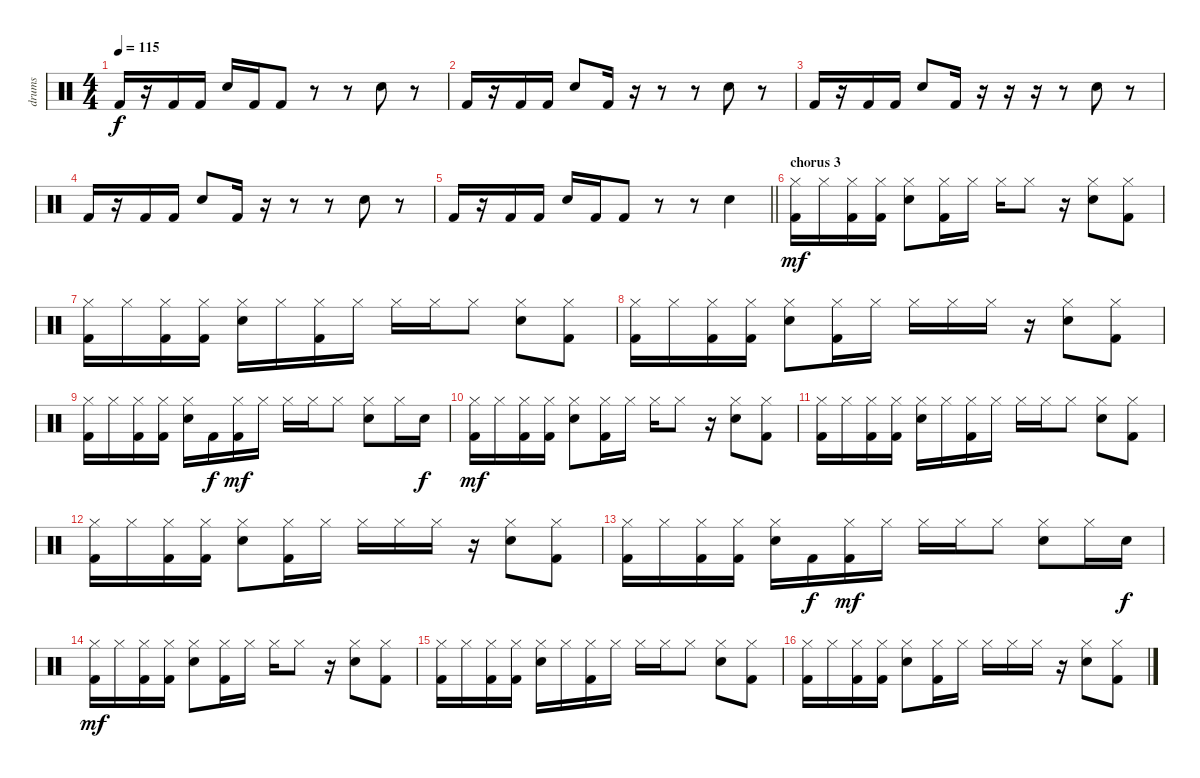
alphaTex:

\track ("drums" "drums") {instrument percussion}
\staff {score}
\articulation defaults
\ts (4 4)
\tempo 115
\clef neutral
\ks c "Kick (hit) 2".16{dy f}
r.16 "Kick (hit) 2".16 "Kick (hit) 2".16 "Snare (hit) 2".16 "Kick (hit) 2".16 "Kick (hit) 2".8 r.8 r.8 "Snare (hit) 2".8 r.8 |
"Kick (hit) 2".16 r.16 "Kick (hit) 2".16 "Kick (hit) 2".16 "Snare (hit) 2".8 "Kick (hit) 2".16 r.16 r.8 r.8 "Snare (hit) 2".8 r.8 |
"Kick (hit) 2".16 r.16 "Kick (hit) 2".16 "Kick (hit) 2".16 "Snare (hit) 2".8 "Kick (hit) 2".16 r.16 r.16 r.16 r.8 "Snare (hit) 2".8 r.8 |
"Kick (hit) 2".16 r.16 "Kick (hit) 2".16 "Kick (hit) 2".16 "Snare (hit) 2".8 "Kick (hit) 2".16 r.16 r.8 r.8 "Snare (hit) 2".8 r.8 |
\barLineRight lightlight "Kick (hit) 2".16
r.16 "Kick (hit) 2".16 "Kick (hit) 2".16 "Snare (hit) 2".16 "Kick (hit) 2".16 "Kick (hit) 2".8 r.8 r.8 "Snare (hit) 2".4 |
\section ("" "chorus 3")
("Hi-Hat (closed)" "Kick (hit) 2").16{dy mf} "Hi-Hat (closed)".16 ("Hi-Hat (closed)" "Kick (hit) 2").16 ("Hi-Hat (closed)" "Kick (hit) 2").16 ("Hi-Hat (closed)" "Snare (hit) 2").8 ("Hi-Hat (closed)" "Kick (hit) 2").16 "Hi-Hat (closed)".16 "Hi-Hat (closed)".16 "Hi-Hat (closed)".8 r.16 ("Hi-Hat (closed)" "Snare (hit) 2").8 ("Hi-Hat (closed)" "Kick (hit) 2").8 |
("Hi-Hat (closed)" "Kick (hit) 2").16 "Hi-Hat (closed)".16 ("Hi-Hat (closed)" "Kick (hit) 2").16 ("Hi-Hat (closed)" "Kick (hit) 2").16 ("Hi-Hat (closed)" "Snare (hit) 2").16 "Hi-Hat (closed)".16 ("Hi-Hat (closed)" "Kick (hit) 2").16 "Hi-Hat (closed)".16 "Hi-Hat (closed)".16 "Hi-Hat (closed)".16 "Hi-Hat (closed)".8 ("Hi-Hat (closed)" "Snare (hit) 2").8 ("Hi-Hat (closed)" "Kick (hit) 2").8 |
("Hi-Hat (closed)" "Kick (hit) 2").16 "Hi-Hat (closed)".16 ("Hi-Hat (closed)" "Kick (hit) 2").16 ("Hi-Hat (closed)" "Kick (hit) 2").16 ("Hi-Hat (closed)" "Snare (hit) 2").8 ("Hi-Hat (closed)" "Kick (hit) 2").16 "Hi-Hat (closed)".16 "Hi-Hat (closed)".16 "Hi-Hat (closed)".16 "Hi-Hat (closed)".16 r.16 ("Hi-Hat (closed)" "Snare (hit) 2").8 ("Hi-Hat (closed)" "Kick (hit) 2").8 |
("Hi-Hat (closed)" "Kick (hit) 2").16 "Hi-Hat (closed)".16 ("Hi-Hat (closed)" "Kick (hit) 2").16 ("Hi-Hat (closed)" "Kick (hit) 2").16 ("Hi-Hat (closed)" "Snare (hit) 2").16 "Kick (hit) 2".16{dy f} ("Hi-Hat (closed)" "Kick (hit) 2").16{dy mf} "Hi-Hat (closed)".16 "Hi-Hat (closed)".16 "Hi-Hat (closed)".16 "Hi-Hat (closed)".8 ("Hi-Hat (closed)" "Snare (hit) 2").8 "Hi-Hat (closed)".16 "Snare (hit) 2".16{dy f} |
("Hi-Hat (closed)" "Kick (hit) 2").16{dy mf} "Hi-Hat (closed)".16 ("Hi-Hat (closed)" "Kick (hit) 2").16 ("Hi-Hat (closed)" "Kick (hit) 2").16 ("Hi-Hat (closed)" "Snare (hit) 2").8 ("Hi-Hat (closed)" "Kick (hit) 2").16 "Hi-Hat (closed)".16 "Hi-Hat (closed)".16 "Hi-Hat (closed)".8 r.16 ("Hi-Hat (closed)" "Snare (hit) 2").8 ("Hi-Hat (closed)" "Kick (hit) 2").8 |
("Hi-Hat (closed)" "Kick (hit) 2").16 "Hi-Hat (closed)".16 ("Hi-Hat (closed)" "Kick (hit) 2").16 ("Hi-Hat (closed)" "Kick (hit) 2").16 ("Hi-Hat (closed)" "Snare (hit) 2").16 "Hi-Hat (closed)".16 ("Hi-Hat (closed)" "Kick (hit) 2").16 "Hi-Hat (closed)".16 "Hi-Hat (closed)".16 "Hi-Hat (closed)".16 "Hi-Hat (closed)".8 ("Hi-Hat (closed)" "Snare (hit) 2").8 ("Hi-Hat (closed)" "Kick (hit) 2").8 |
("Hi-Hat (closed)" "Kick (hit) 2").16 "Hi-Hat (closed)".16 ("Hi-Hat (closed)" "Kick (hit) 2").16 ("Hi-Hat (closed)" "Kick (hit) 2").16 ("Hi-Hat (closed)" "Snare (hit) 2").8 ("Hi-Hat (closed)" "Kick (hit) 2").16 "Hi-Hat (closed)".16 "Hi-Hat (closed)".16 "Hi-Hat (closed)".16 "Hi-Hat (closed)".16 r.16 ("Hi-Hat (closed)" "Snare (hit) 2").8 ("Hi-Hat (closed)" "Kick (hit) 2").8 |
("Hi-Hat (closed)" "Kick (hit) 2").16 "Hi-Hat (closed)".16 ("Hi-Hat (closed)" "Kick (hit) 2").16 ("Hi-Hat (closed)" "Kick (hit) 2").16 ("Hi-Hat (closed)" "Snare (hit) 2").16 "Kick (hit) 2".16{dy f} ("Hi-Hat (closed)" "Kick (hit) 2").16{dy mf} "Hi-Hat (closed)".16 "Hi-Hat (closed)".16 "Hi-Hat (closed)".16 "Hi-Hat (closed)".8 ("Hi-Hat (closed)" "Snare (hit) 2").8 "Hi-Hat (closed)".16 "Snare (hit) 2".16{dy f} |
("Hi-Hat (closed)" "Kick (hit) 2").16{dy mf} "Hi-Hat (closed)".16 ("Hi-Hat (closed)" "Kick (hit) 2").16 ("Hi-Hat (closed)" "Kick (hit) 2").16 ("Hi-Hat (closed)" "Snare (hit) 2").8 ("Hi-Hat (closed)" "Kick (hit) 2").16 "Hi-Hat (closed)".16 "Hi-Hat (closed)".16 "Hi-Hat (closed)".8 r.16 ("Hi-Hat (closed)" "Snare (hit) 2").8 ("Hi-Hat (closed)" "Kick (hit) 2").8 |
("Hi-Hat (closed)" "Kick (hit) 2").16 "Hi-Hat (closed)".16 ("Hi-Hat (closed)" "Kick (hit) 2").16 ("Hi-Hat (closed)" "Kick (hit) 2").16 ("Hi-Hat (closed)" "Snare (hit) 2").16 "Hi-Hat (closed)".16 ("Hi-Hat (closed)" "Kick (hit) 2").16 "Hi-Hat (closed)".16 "Hi-Hat (closed)".16 "Hi-Hat (closed)".16 "Hi-Hat (closed)".8 ("Hi-Hat (closed)" "Snare (hit) 2").8 ("Hi-Hat (closed)" "Kick (hit) 2").8 |
("Hi-Hat (closed)" "Kick (hit) 2").16 "Hi-Hat (closed)".16 ("Hi-Hat (closed)" "Kick (hit) 2").16 ("Hi-Hat (closed)" "Kick (hit) 2").16 ("Hi-Hat (closed)" "Snare (hit) 2").8 ("Hi-Hat (closed)" "Kick (hit) 2").16 "Hi-Hat (closed)".16 "Hi-Hat (closed)".16 "Hi-Hat (closed)".16 "Hi-Hat (closed)".16 r.16 ("Hi-Hat (closed)" "Snare (hit) 2").8 ("Hi-Hat (closed)" "Kick (hit) 2").8
